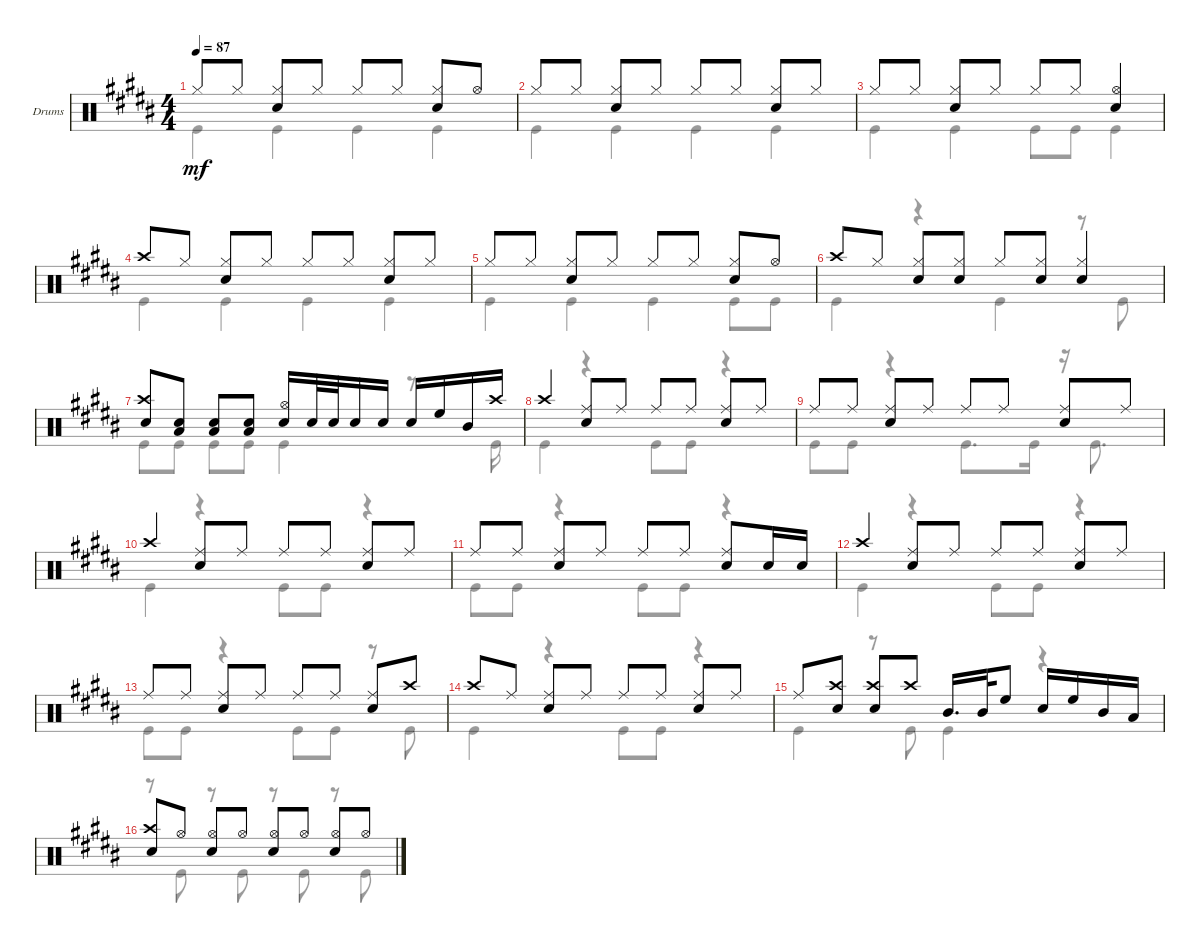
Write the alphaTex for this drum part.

\bracketExtendMode groupsimilarinstruments
\firstSystemTrackNameOrientation horizontal
\otherSystemsTrackNameOrientation horizontal
\track ("Drums" "Drums") {multiBarRest instrument percussion}
\staff {score}
\articulation defaults
\voice
\ts (4 4)
\tempo 87
\clef neutral
\ks b "Hi-Hat (closed)".8{dy mf} "Hi-Hat (closed)".8
("Hi-Hat (closed)" "Snare (hit) 2").8 "Hi-Hat (closed)".8 "Hi-Hat (closed)".8 "Hi-Hat (closed)".8 ("Hi-Hat (closed)" "Snare (hit) 2").8 "Hi-Hat (open)".8 |
"Hi-Hat (closed)".8 "Hi-Hat (closed)".8 ("Hi-Hat (closed)" "Snare (hit) 2").8 "Hi-Hat (closed)".8 "Hi-Hat (closed)".8 "Hi-Hat (closed)".8 ("Hi-Hat (closed)" "Snare (hit) 2").8 "Hi-Hat (closed)".8 |
"Hi-Hat (closed)".8 "Hi-Hat (closed)".8 ("Hi-Hat (closed)" "Snare (hit) 2").8 "Hi-Hat (closed)".8 "Hi-Hat (closed)".8 "Hi-Hat (closed)".8 ("Hi-Hat (open)" "Snare (hit) 2").4 |
"Crash high (hit)".8 "Hi-Hat (closed)".8 ("Hi-Hat (closed)" "Snare (hit) 2").8 "Hi-Hat (closed)".8 "Hi-Hat (closed)".8 "Hi-Hat (closed)".8 ("Hi-Hat (closed)" "Snare (hit) 2").8 "Hi-Hat (closed)".8 |
"Hi-Hat (closed)".8 "Hi-Hat (closed)".8 ("Hi-Hat (closed)" "Snare (hit) 2").8 "Hi-Hat (closed)".8 "Hi-Hat (closed)".8 "Hi-Hat (closed)".8 ("Hi-Hat (closed)" "Snare (hit) 2").8 "Hi-Hat (open)".8 |
"Crash high (hit)".8 "Hi-Hat (closed)".8 ("Hi-Hat (closed)" "Snare (hit) 2").8 ("Hi-Hat (closed)" "Snare (hit) 2").8 "Hi-Hat (closed)".8 ("Hi-Hat (closed)" "Snare (hit) 2").8 ("Hi-Hat (closed)" "Snare (hit) 2").4 |
("Crash high (hit)" "Snare (hit) 2").8 ("Snare (hit) 2" "Low Tom (hit)").8 ("Low Tom (hit)" "Snare (hit) 2").8 ("Snare (hit) 2" "Low Tom (hit)").8 ("Snare (hit) 2" "Hi-Hat (open)").16 "Snare (hit) 2".32 "Snare (hit) 2".32 "Snare (hit) 2".16 "Snare (hit) 2".16 "Snare (hit) 2".16 "High Floor Tom (hit)".16 "Mid Tom (hit)".16 "Crash high (hit)".16 |
"Crash high (hit)".4 ("Ride (middle)" "Snare (hit) 2").8 "Ride (middle)".8 "Ride (middle)".8 "Ride (middle)".8 ("Ride (middle)" "Snare (hit) 2").8 "Ride (middle)".8 |
"Ride (middle)".8 "Ride (middle)".8 ("Ride (middle)" "Snare (hit) 2").8 "Ride (middle)".8 "Ride (middle)".8 "Ride (middle)".8 ("Ride (middle)" "Snare (hit) 2").8 "Ride (middle)".8 |
"Crash high (hit)".4 ("Ride (middle)" "Snare (hit) 2").8 "Ride (middle)".8 "Ride (middle)".8 "Ride (middle)".8 ("Ride (middle)" "Snare (hit) 2").8 "Ride (middle)".8 |
"Ride (middle)".8 "Ride (middle)".8 ("Ride (middle)" "Snare (hit) 2").8 "Ride (middle)".8 "Ride (middle)".8 "Ride (middle)".8 ("Ride (middle)" "Snare (hit) 2").8 "Snare (hit) 2".16 "Snare (hit) 2".16 |
"Crash high (hit)".4 ("Ride (middle)" "Snare (hit) 2").8 "Ride (middle)".8 "Ride (middle)".8 "Ride (middle)".8 ("Ride (middle)" "Snare (hit) 2").8 "Ride (middle)".8 |
"Ride (middle)".8 "Ride (middle)".8 ("Ride (middle)" "Snare (hit) 2").8 "Ride (middle)".8 "Ride (middle)".8 "Ride (middle)".8 ("Ride (middle)" "Snare (hit) 2").8 "Crash high (hit)".8 |
"Crash high (hit)".8 "Ride (middle)".8 ("Ride (middle)" "Snare (hit) 2").8 "Ride (middle)".8 "Ride (middle)".8 "Ride (middle)".8 ("Ride (middle)" "Snare (hit) 2").8 "Ride (middle)".8 |
"Ride (middle)".8 ("Crash high (hit)" "Snare (hit) 2").8 ("Crash high (hit)" "Snare (hit) 2").8 "Crash high (hit)".8 "Mid Tom (hit)".16{d} "Mid Tom (hit)".32 "High Floor Tom (hit)".8 "Snare (hit) 2".16 "High Floor Tom (hit)".16 "Mid Tom (hit)".16 "Low Tom (hit)".16 |
("Crash high (hit)" "Snare (hit) 2").8 "Hi-Hat (open)".8 ("Hi-Hat (open)" "Snare (hit) 2").8 "Hi-Hat (open)".8 ("Hi-Hat (open)" "Snare (hit) 2").8 "Hi-Hat (open)".8 ("Hi-Hat (open)" "Snare (hit) 2").8 "Hi-Hat (open)".8
\voice
\clef neutral
\ottava regular
\simile none
\ks b "Kick (hit)".4{dy mf} "Kick (hit)".4 "Kick (hit)".4 "Kick (hit)".4
|
"Kick (hit)".4 "Kick (hit)".4 "Kick (hit)".4 "Kick (hit)".4 |
"Kick (hit)".4 "Kick (hit)".4 "Kick (hit)".8 "Kick (hit)".8 "Kick (hit)".4 |
"Kick (hit)".4 "Kick (hit)".4 "Kick (hit)".4 "Kick (hit)".4 |
"Kick (hit)".4 "Kick (hit)".4 "Kick (hit)".4 "Kick (hit)".8 "Kick (hit)".8 |
"Kick (hit)".4 r.4 "Kick (hit)".4 r.8 "Kick (hit)".8 |
"Kick (hit)".8 "Kick (hit)".8 "Kick (hit)".8 "Kick (hit)".8 "Kick (hit)".4 r.8{d} "Kick (hit)".16 |
"Kick (hit)".4 r.4 "Kick (hit)".8 "Kick (hit)".8 r.4 |
"Kick (hit)".8 "Kick (hit)".8 r.4 "Kick (hit)".8{d} "Kick (hit)".16 r.16 "Kick (hit)".8{d} |
"Kick (hit)".4 r.4 "Kick (hit)".8 "Kick (hit)".8 r.4 |
"Kick (hit)".8 "Kick (hit)".8 r.4 "Kick (hit)".8 "Kick (hit)".8 r.4 |
"Kick (hit)".4 r.4 "Kick (hit)".8 "Kick (hit)".8 r.4 |
"Kick (hit)".8 "Kick (hit)".8 r.4 "Kick (hit)".8 "Kick (hit)".8 r.8 "Kick (hit)".8 |
"Kick (hit)".4 r.4 "Kick (hit)".8 "Kick (hit)".8 r.4 |
"Kick (hit)".4 r.8 "Kick (hit)".8 "Kick (hit)".4 r.4 |
r.8 "Kick (hit)".8 r.8 "Kick (hit)".8 r.8 "Kick (hit)".8 r.8 "Kick (hit)".8
